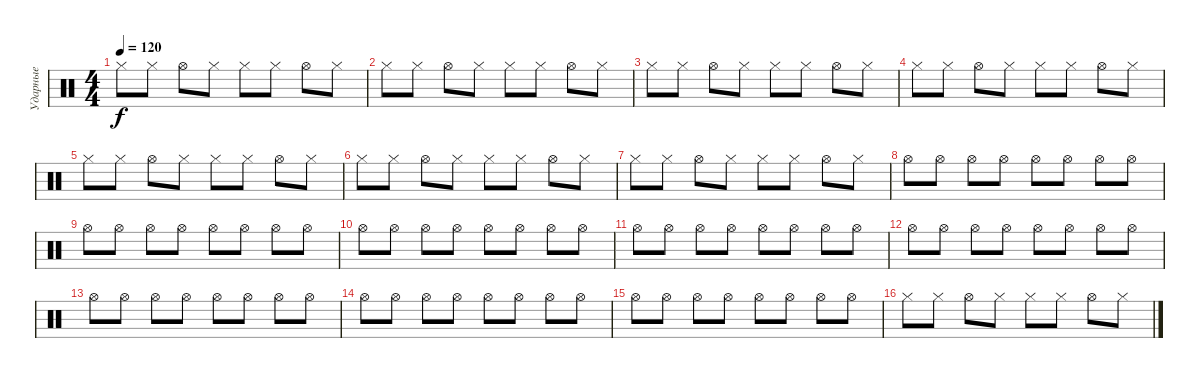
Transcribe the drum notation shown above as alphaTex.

\track ("Ударные" "Ударные") {instrument percussion}
\staff {score}
\articulation defaults
\ts (4 4)
\tempo 120
\clef neutral
\ks c "Hi-Hat (closed)".8{dy f} "Hi-Hat (closed)".8 "Hi-Hat (open)".8 "Hi-Hat (closed)".8 "Hi-Hat (closed)".8 "Hi-Hat (closed)".8 "Hi-Hat (open)".8 "Hi-Hat (closed)".8
|
"Hi-Hat (closed)".8 "Hi-Hat (closed)".8 "Hi-Hat (open)".8 "Hi-Hat (closed)".8 "Hi-Hat (closed)".8 "Hi-Hat (closed)".8 "Hi-Hat (open)".8 "Hi-Hat (closed)".8 |
"Hi-Hat (closed)".8 "Hi-Hat (closed)".8 "Hi-Hat (open)".8 "Hi-Hat (closed)".8 "Hi-Hat (closed)".8 "Hi-Hat (closed)".8 "Hi-Hat (open)".8 "Hi-Hat (closed)".8 |
"Hi-Hat (closed)".8 "Hi-Hat (closed)".8 "Hi-Hat (open)".8 "Hi-Hat (closed)".8 "Hi-Hat (closed)".8 "Hi-Hat (closed)".8 "Hi-Hat (open)".8 "Hi-Hat (closed)".8 |
"Hi-Hat (closed)".8 "Hi-Hat (closed)".8 "Hi-Hat (open)".8 "Hi-Hat (closed)".8 "Hi-Hat (closed)".8 "Hi-Hat (closed)".8 "Hi-Hat (open)".8 "Hi-Hat (closed)".8 |
"Hi-Hat (closed)".8 "Hi-Hat (closed)".8 "Hi-Hat (open)".8 "Hi-Hat (closed)".8 "Hi-Hat (closed)".8 "Hi-Hat (closed)".8 "Hi-Hat (open)".8 "Hi-Hat (closed)".8 |
"Hi-Hat (closed)".8 "Hi-Hat (closed)".8 "Hi-Hat (open)".8 "Hi-Hat (closed)".8 "Hi-Hat (closed)".8 "Hi-Hat (closed)".8 "Hi-Hat (open)".8 "Hi-Hat (closed)".8 |
"Hi-Hat (open)".8 "Hi-Hat (open)".8 "Hi-Hat (open)".8 "Hi-Hat (open)".8 "Hi-Hat (open)".8 "Hi-Hat (open)".8 "Hi-Hat (open)".8 "Hi-Hat (open)".8 |
"Hi-Hat (open)".8 "Hi-Hat (open)".8 "Hi-Hat (open)".8 "Hi-Hat (open)".8 "Hi-Hat (open)".8 "Hi-Hat (open)".8 "Hi-Hat (open)".8 "Hi-Hat (open)".8 |
"Hi-Hat (open)".8 "Hi-Hat (open)".8 "Hi-Hat (open)".8 "Hi-Hat (open)".8 "Hi-Hat (open)".8 "Hi-Hat (open)".8 "Hi-Hat (open)".8 "Hi-Hat (open)".8 |
"Hi-Hat (open)".8 "Hi-Hat (open)".8 "Hi-Hat (open)".8 "Hi-Hat (open)".8 "Hi-Hat (open)".8 "Hi-Hat (open)".8 "Hi-Hat (open)".8 "Hi-Hat (open)".8 |
"Hi-Hat (open)".8 "Hi-Hat (open)".8 "Hi-Hat (open)".8 "Hi-Hat (open)".8 "Hi-Hat (open)".8 "Hi-Hat (open)".8 "Hi-Hat (open)".8 "Hi-Hat (open)".8 |
"Hi-Hat (open)".8 "Hi-Hat (open)".8 "Hi-Hat (open)".8 "Hi-Hat (open)".8 "Hi-Hat (open)".8 "Hi-Hat (open)".8 "Hi-Hat (open)".8 "Hi-Hat (open)".8 |
"Hi-Hat (open)".8 "Hi-Hat (open)".8 "Hi-Hat (open)".8 "Hi-Hat (open)".8 "Hi-Hat (open)".8 "Hi-Hat (open)".8 "Hi-Hat (open)".8 "Hi-Hat (open)".8 |
"Hi-Hat (open)".8 "Hi-Hat (open)".8 "Hi-Hat (open)".8 "Hi-Hat (open)".8 "Hi-Hat (open)".8 "Hi-Hat (open)".8 "Hi-Hat (open)".8 "Hi-Hat (open)".8 |
"Hi-Hat (closed)".8 "Hi-Hat (closed)".8 "Hi-Hat (open)".8 "Hi-Hat (closed)".8 "Hi-Hat (closed)".8 "Hi-Hat (closed)".8 "Hi-Hat (open)".8 "Hi-Hat (closed)".8
